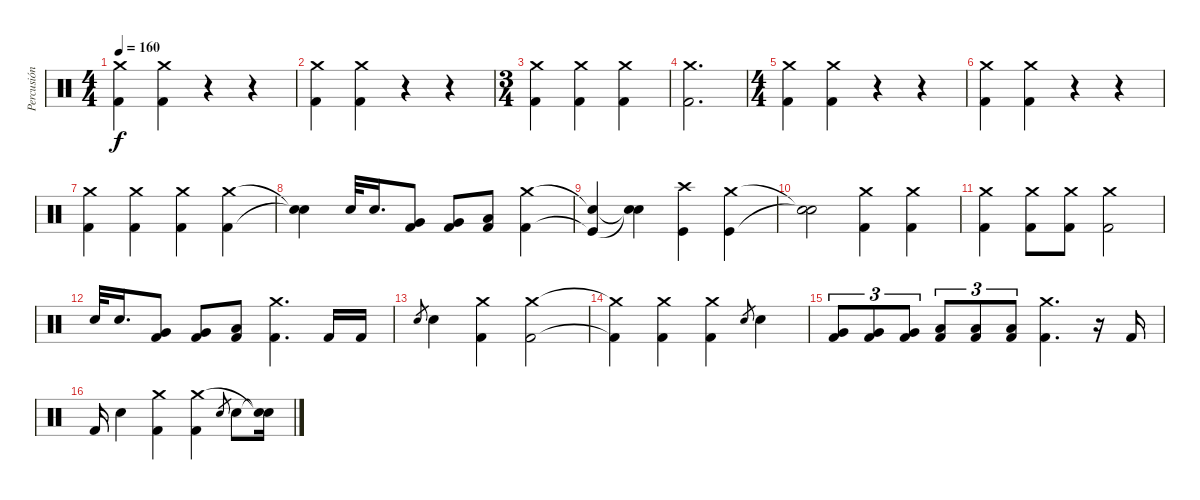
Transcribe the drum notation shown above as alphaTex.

\track ("Percusión" "Percusión") {instrument percussion}
\staff {score}
\articulation defaults
\ts (4 4)
\tempo 160
\clef neutral
\ks c
("Kick (hit) 2" "Crash medium (hit)").4{dy f} ("Kick (hit) 2" "Crash medium (hit)").4 r.4 r.4 |
("Kick (hit) 2" "Crash medium (hit)").4 ("Kick (hit) 2" "Crash medium (hit)").4 r.4 r.4 |
\ts (3 4)
("Kick (hit) 2" "Crash medium (hit)").4 ("Kick (hit) 2" "Crash medium (hit)").4 ("Kick (hit) 2" "Crash medium (hit)").4 |
("Kick (hit) 2" "Crash medium (hit)").2{d} |
\ts (4 4)
("Kick (hit) 2" "Crash medium (hit)").4 ("Kick (hit) 2" "Crash medium (hit)").4 r.4 r.4 |
("Kick (hit) 2" "Crash medium (hit)").4 ("Kick (hit) 2" "Crash medium (hit)").4 r.4 r.4 |
("Kick (hit) 2" "Crash medium (hit)").4 ("Kick (hit) 2" "Crash medium (hit)").4 ("Kick (hit) 2" "Crash medium (hit)").4 ("Kick (hit) 2" "Crash medium (hit)").4 |
("Snare (hit) 2"{t} "Snare (hit)"{t}).4 "Snare (hit) 2".32 "Snare (hit) 2".16{d} ("Kick (hit) 2" "Very Low Tom (hit)").8 ("Kick (hit) 2" "Very Low Tom (hit)").8 ("Kick (hit) 2" "Low Floor Tom (hit)").8 ("Kick (hit) 2" "Crash medium (hit)").4 |
("Kick (hit)"{t} "Snare (hit)"{t}).4 ("Snare (hit)"{t} "Snare (hit)"{t}).4 ("Kick (hit)" "Crash high (hit)").4 ("Kick (hit)" "Crash medium (hit)").4 |
("Snare (hit)"{t} "Snare (hit)"{t}).2 ("Kick (hit) 2" "Crash medium (hit)").4 ("Kick (hit) 2" "Crash medium (hit)").4 |
("Kick (hit) 2" "Crash medium (hit)").4 ("Kick (hit) 2" "Crash medium (hit)").8 ("Kick (hit) 2" "Crash medium (hit)").8 ("Kick (hit) 2" "Crash medium (hit)").2 |
"Snare (hit) 2".32 "Snare (hit) 2".16{d} ("Kick (hit) 2" "Very Low Tom (hit)").8 ("Kick (hit) 2" "Very Low Tom (hit)").8 ("Kick (hit) 2" "Low Floor Tom (hit)").8 ("Kick (hit) 2" "Crash medium (hit)").4{d} "Kick (hit) 2".16 "Kick (hit) 2".16 |
"Snare (hit) 2".8{gr} "Snare (hit) 2".4 ("Kick (hit) 2" "Crash medium (hit)").4 ("Kick (hit) 2" "Crash medium (hit)").2 |
("Kick (hit) 2"{t} "Crash medium (hit)"{t}).4 ("Kick (hit) 2" "Crash medium (hit)").4 ("Kick (hit) 2" "Crash medium (hit)").4 "Snare (hit) 2".8{gr} "Snare (hit) 2".4 |
("Kick (hit) 2" "Very Low Tom (hit)").8{tu (3 2)} ("Kick (hit) 2" "Very Low Tom (hit)").8{tu (3 2)} ("Kick (hit) 2" "Very Low Tom (hit)").8{tu (3 2)} ("Kick (hit) 2" "Low Floor Tom (hit)").8{tu (3 2)} ("Kick (hit) 2" "Low Floor Tom (hit)").8{tu (3 2)} ("Kick (hit) 2" "Low Floor Tom (hit)").8{tu (3 2)} ("Kick (hit) 2" "Crash medium (hit)").4{d} r.16 "Kick (hit) 2".16 |
"Kick (hit) 2".16 "Snare (hit) 2".4 ("Kick (hit) 2" "Crash medium (hit)").4 ("Kick (hit) 2" "Crash medium (hit)").4 "Snare (hit) 2".8{gr} "Snare (hit) 2".8 ("Snare (hit) 2"{t} "Snare (hit)"{t}).16
